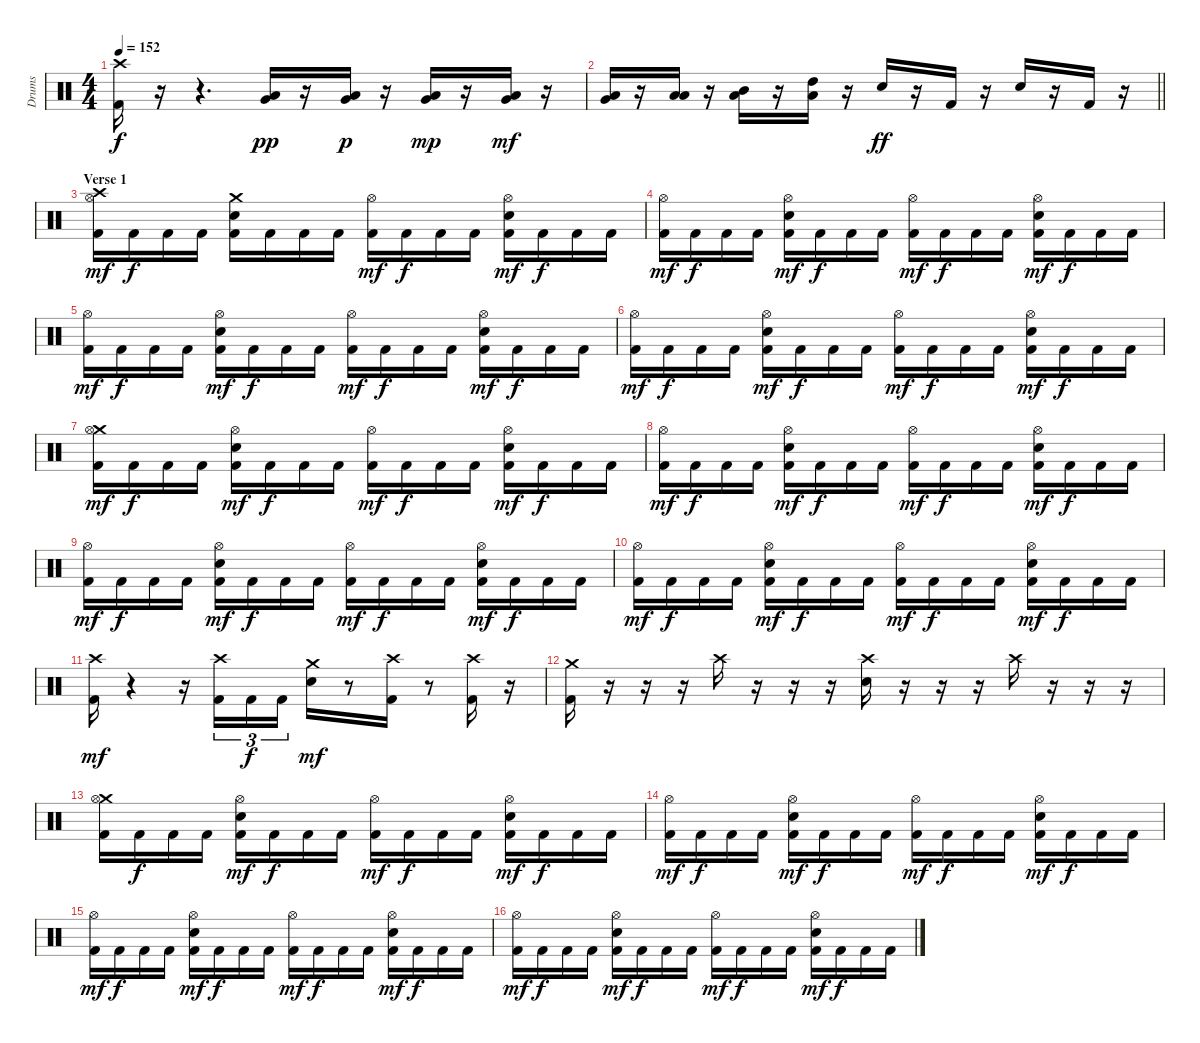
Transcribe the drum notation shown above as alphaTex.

\track ("Drums" "Drums") {instrument percussion}
\staff {score}
\articulation defaults
\ts (4 4)
\tempo 152
\clef neutral
\ks c
("Crash high (hit)" "Kick (hit) 2").16{dy f} r.16 r.4{d} ("Very Low Tom (hit)" "Low Floor Tom (hit)").16{dy pp} r.16 ("Very Low Tom (hit)" "Low Floor Tom (hit)").16{dy p} r.16 ("Very Low Tom (hit)" "Low Floor Tom (hit)").16{dy mp} r.16 ("Very Low Tom (hit)" "Low Floor Tom (hit)").16{dy mf} r.16 |
\barLineRight lightlight
("Very Low Tom (hit)" "Low Floor Tom (hit)").16 r.16 ("Low Tom (hit)" "Low Floor Tom (hit)").16 r.16 ("Mid Tom (hit)" "Low Floor Tom (hit)").16 r.16 ("High Tom (hit)" "Low Floor Tom (hit)").16 r.16 "Snare (hit) 2".16{dy ff} r.16 "Kick (hit) 2".16 r.16 "Snare (hit) 2".16 r.16 "Kick (hit) 2".16 r.16 |
\section ("" "Verse 1")
("Crash high (hit)" "Hi-Hat (open)" "Kick (hit) 2").16{dy mf} "Kick (hit) 2".16{dy f} "Kick (hit) 2".16 "Kick (hit) 2".16 ("Crash medium (hit)" "Snare (hit) 2" "Kick (hit) 2").16 "Kick (hit) 2".16 "Kick (hit) 2".16 "Kick (hit) 2".16 ("Hi-Hat (open)" "Kick (hit) 2").16{dy mf} "Kick (hit) 2".16{dy f} "Kick (hit) 2".16 "Kick (hit) 2".16 ("Hi-Hat (open)" "Snare (hit) 2" "Kick (hit) 2").16{dy mf} "Kick (hit) 2".16{dy f} "Kick (hit) 2".16 "Kick (hit) 2".16 |
("Hi-Hat (open)" "Kick (hit) 2").16{dy mf} "Kick (hit) 2".16{dy f} "Kick (hit) 2".16 "Kick (hit) 2".16 ("Hi-Hat (open)" "Snare (hit) 2" "Kick (hit) 2").16{dy mf} "Kick (hit) 2".16{dy f} "Kick (hit) 2".16 "Kick (hit) 2".16 ("Hi-Hat (open)" "Kick (hit) 2").16{dy mf} "Kick (hit) 2".16{dy f} "Kick (hit) 2".16 "Kick (hit) 2".16 ("Hi-Hat (open)" "Snare (hit) 2" "Kick (hit) 2").16{dy mf} "Kick (hit) 2".16{dy f} "Kick (hit) 2".16 "Kick (hit) 2".16 |
("Hi-Hat (open)" "Kick (hit) 2").16{dy mf} "Kick (hit) 2".16{dy f} "Kick (hit) 2".16 "Kick (hit) 2".16 ("Hi-Hat (open)" "Snare (hit) 2" "Kick (hit) 2").16{dy mf} "Kick (hit) 2".16{dy f} "Kick (hit) 2".16 "Kick (hit) 2".16 ("Hi-Hat (open)" "Kick (hit) 2").16{dy mf} "Kick (hit) 2".16{dy f} "Kick (hit) 2".16 "Kick (hit) 2".16 ("Hi-Hat (open)" "Snare (hit) 2" "Kick (hit) 2").16{dy mf} "Kick (hit) 2".16{dy f} "Kick (hit) 2".16 "Kick (hit) 2".16 |
("Hi-Hat (open)" "Kick (hit) 2").16{dy mf} "Kick (hit) 2".16{dy f} "Kick (hit) 2".16 "Kick (hit) 2".16 ("Hi-Hat (open)" "Snare (hit) 2" "Kick (hit) 2").16{dy mf} "Kick (hit) 2".16{dy f} "Kick (hit) 2".16 "Kick (hit) 2".16 ("Hi-Hat (open)" "Kick (hit) 2").16{dy mf} "Kick (hit) 2".16{dy f} "Kick (hit) 2".16 "Kick (hit) 2".16 ("Hi-Hat (open)" "Snare (hit) 2" "Kick (hit) 2").16{dy mf} "Kick (hit) 2".16{dy f} "Kick (hit) 2".16 "Kick (hit) 2".16 |
("Crash medium (hit)" "Hi-Hat (open)" "Kick (hit) 2").16{dy mf} "Kick (hit) 2".16{dy f} "Kick (hit) 2".16 "Kick (hit) 2".16 ("Hi-Hat (open)" "Snare (hit) 2" "Kick (hit) 2").16{dy mf} "Kick (hit) 2".16{dy f} "Kick (hit) 2".16 "Kick (hit) 2".16 ("Hi-Hat (open)" "Kick (hit) 2").16{dy mf} "Kick (hit) 2".16{dy f} "Kick (hit) 2".16 "Kick (hit) 2".16 ("Hi-Hat (open)" "Snare (hit) 2" "Kick (hit) 2").16{dy mf} "Kick (hit) 2".16{dy f} "Kick (hit) 2".16 "Kick (hit) 2".16 |
("Hi-Hat (open)" "Kick (hit) 2").16{dy mf} "Kick (hit) 2".16{dy f} "Kick (hit) 2".16 "Kick (hit) 2".16 ("Hi-Hat (open)" "Snare (hit) 2" "Kick (hit) 2").16{dy mf} "Kick (hit) 2".16{dy f} "Kick (hit) 2".16 "Kick (hit) 2".16 ("Hi-Hat (open)" "Kick (hit) 2").16{dy mf} "Kick (hit) 2".16{dy f} "Kick (hit) 2".16 "Kick (hit) 2".16 ("Hi-Hat (open)" "Snare (hit) 2" "Kick (hit) 2").16{dy mf} "Kick (hit) 2".16{dy f} "Kick (hit) 2".16 "Kick (hit) 2".16 |
("Hi-Hat (open)" "Kick (hit) 2").16{dy mf} "Kick (hit) 2".16{dy f} "Kick (hit) 2".16 "Kick (hit) 2".16 ("Hi-Hat (open)" "Snare (hit) 2" "Kick (hit) 2").16{dy mf} "Kick (hit) 2".16{dy f} "Kick (hit) 2".16 "Kick (hit) 2".16 ("Hi-Hat (open)" "Kick (hit) 2").16{dy mf} "Kick (hit) 2".16{dy f} "Kick (hit) 2".16 "Kick (hit) 2".16 ("Hi-Hat (open)" "Snare (hit) 2" "Kick (hit) 2").16{dy mf} "Kick (hit) 2".16{dy f} "Kick (hit) 2".16 "Kick (hit) 2".16 |
("Hi-Hat (open)" "Kick (hit) 2").16{dy mf} "Kick (hit) 2".16{dy f} "Kick (hit) 2".16 "Kick (hit) 2".16 ("Hi-Hat (open)" "Snare (hit) 2" "Kick (hit) 2").16{dy mf} "Kick (hit) 2".16{dy f} "Kick (hit) 2".16 "Kick (hit) 2".16 ("Hi-Hat (open)" "Kick (hit) 2").16{dy mf} "Kick (hit) 2".16{dy f} "Kick (hit) 2".16 "Kick (hit) 2".16 ("Hi-Hat (open)" "Snare (hit) 2" "Kick (hit) 2").16{dy mf} "Kick (hit) 2".16{dy f} "Kick (hit) 2".16 "Kick (hit) 2".16 |
("Crash high (hit)" "Kick (hit) 2").16{dy mf} r.4 r.16 ("Crash high (hit)" "Kick (hit) 2").16{tu (3 2)} "Kick (hit) 2".16{tu (3 2) dy f} "Kick (hit) 2".16{tu (3 2)} ("Crash medium (hit)" "Snare (hit) 2").16{dy mf} r.8 ("Crash high (hit)" "Kick (hit) 2").16 r.8 ("Crash high (hit)" "Kick (hit) 2").16 r.16 |
("Crash medium (hit)" "Kick (hit) 2").16 r.16 r.16 r.16 "Crash high (hit)".16 r.16 r.16 r.16 ("Crash high (hit)" "Snare (hit) 2").16 r.16 r.16 r.16 "Crash high (hit)".16 r.16 r.16 r.16 |
("Crash medium (hit)" "Hi-Hat (open)" "Kick (hit) 2").16 "Kick (hit) 2".16{dy f} "Kick (hit) 2".16 "Kick (hit) 2".16 ("Hi-Hat (open)" "Snare (hit) 2" "Kick (hit) 2").16{dy mf} "Kick (hit) 2".16{dy f} "Kick (hit) 2".16 "Kick (hit) 2".16 ("Hi-Hat (open)" "Kick (hit) 2").16{dy mf} "Kick (hit) 2".16{dy f} "Kick (hit) 2".16 "Kick (hit) 2".16 ("Hi-Hat (open)" "Snare (hit) 2" "Kick (hit) 2").16{dy mf} "Kick (hit) 2".16{dy f} "Kick (hit) 2".16 "Kick (hit) 2".16 |
("Hi-Hat (open)" "Kick (hit) 2").16{dy mf} "Kick (hit) 2".16{dy f} "Kick (hit) 2".16 "Kick (hit) 2".16 ("Hi-Hat (open)" "Snare (hit) 2" "Kick (hit) 2").16{dy mf} "Kick (hit) 2".16{dy f} "Kick (hit) 2".16 "Kick (hit) 2".16 ("Hi-Hat (open)" "Kick (hit) 2").16{dy mf} "Kick (hit) 2".16{dy f} "Kick (hit) 2".16 "Kick (hit) 2".16 ("Hi-Hat (open)" "Snare (hit) 2" "Kick (hit) 2").16{dy mf} "Kick (hit) 2".16{dy f} "Kick (hit) 2".16 "Kick (hit) 2".16 |
("Hi-Hat (open)" "Kick (hit) 2").16{dy mf} "Kick (hit) 2".16{dy f} "Kick (hit) 2".16 "Kick (hit) 2".16 ("Hi-Hat (open)" "Snare (hit) 2" "Kick (hit) 2").16{dy mf} "Kick (hit) 2".16{dy f} "Kick (hit) 2".16 "Kick (hit) 2".16 ("Hi-Hat (open)" "Kick (hit) 2").16{dy mf} "Kick (hit) 2".16{dy f} "Kick (hit) 2".16 "Kick (hit) 2".16 ("Hi-Hat (open)" "Snare (hit) 2" "Kick (hit) 2").16{dy mf} "Kick (hit) 2".16{dy f} "Kick (hit) 2".16 "Kick (hit) 2".16 |
("Hi-Hat (open)" "Kick (hit) 2").16{dy mf} "Kick (hit) 2".16{dy f} "Kick (hit) 2".16 "Kick (hit) 2".16 ("Hi-Hat (open)" "Snare (hit) 2" "Kick (hit) 2").16{dy mf} "Kick (hit) 2".16{dy f} "Kick (hit) 2".16 "Kick (hit) 2".16 ("Hi-Hat (open)" "Kick (hit) 2").16{dy mf} "Kick (hit) 2".16{dy f} "Kick (hit) 2".16 "Kick (hit) 2".16 ("Hi-Hat (open)" "Snare (hit) 2" "Kick (hit) 2").16{dy mf} "Kick (hit) 2".16{dy f} "Kick (hit) 2".16 "Kick (hit) 2".16
